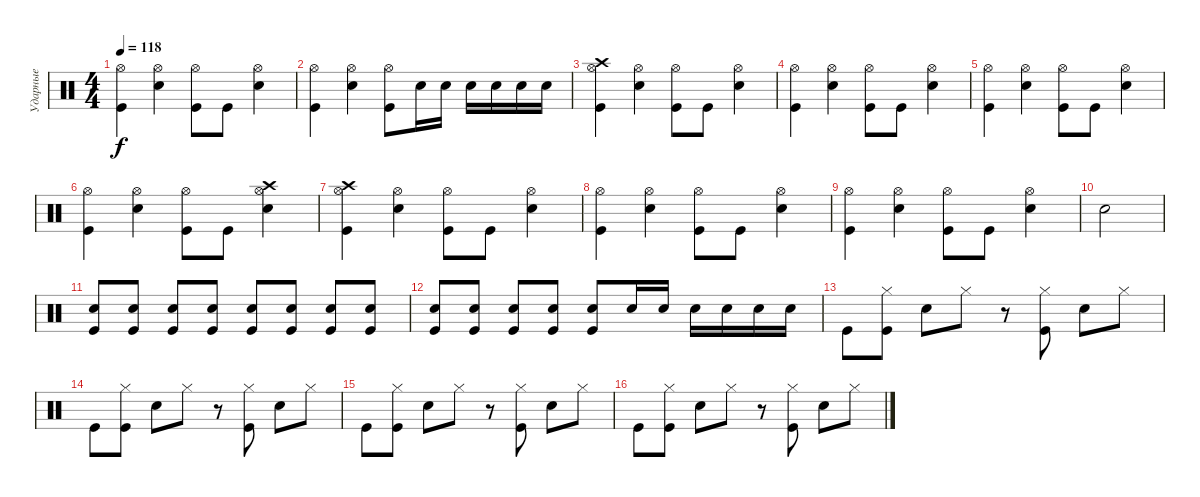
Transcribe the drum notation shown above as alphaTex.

\track ("Ударные" "Ударные") {instrument percussion}
\staff {score}
\articulation defaults
\ts (4 4)
\tempo 118
\clef neutral
\ks c
("Hi-Hat (open)" "Kick (hit)").4{dy f} ("Hi-Hat (open)" "Snare (hit) 2").4 ("Hi-Hat (open)" "Kick (hit)").8 "Kick (hit)".8 ("Hi-Hat (open)" "Snare (hit) 2").4 |
("Hi-Hat (open)" "Kick (hit)").4 ("Hi-Hat (open)" "Snare (hit) 2").4 ("Hi-Hat (open)" "Kick (hit)").8 "Snare (hit) 2".16 "Snare (hit) 2".16 "Snare (hit) 2".16 "Snare (hit) 2".16 "Snare (hit) 2".16 "Snare (hit) 2".16 |
("Hi-Hat (open)" "Crash high (hit)" "Kick (hit)").4 ("Hi-Hat (open)" "Snare (hit) 2").4 ("Hi-Hat (open)" "Kick (hit)").8 "Kick (hit)".8 ("Hi-Hat (open)" "Snare (hit) 2").4 |
("Hi-Hat (open)" "Kick (hit)").4 ("Hi-Hat (open)" "Snare (hit) 2").4 ("Hi-Hat (open)" "Kick (hit)").8 "Kick (hit)".8 ("Hi-Hat (open)" "Snare (hit) 2").4 |
("Hi-Hat (open)" "Kick (hit)").4 ("Hi-Hat (open)" "Snare (hit) 2").4 ("Hi-Hat (open)" "Kick (hit)").8 "Kick (hit)".8 ("Hi-Hat (open)" "Snare (hit) 2").4 |
("Hi-Hat (open)" "Kick (hit)").4 ("Hi-Hat (open)" "Snare (hit) 2").4 ("Hi-Hat (open)" "Kick (hit)").8 "Kick (hit)".8 ("Hi-Hat (open)" "Crash high (hit)" "Snare (hit) 2").4 |
("Hi-Hat (open)" "Crash high (hit)" "Kick (hit)").4 ("Hi-Hat (open)" "Snare (hit) 2").4 ("Hi-Hat (open)" "Kick (hit)").8 "Kick (hit)".8 ("Hi-Hat (open)" "Snare (hit) 2").4 |
("Hi-Hat (open)" "Kick (hit)").4 ("Hi-Hat (open)" "Snare (hit) 2").4 ("Hi-Hat (open)" "Kick (hit)").8 "Kick (hit)".8 ("Hi-Hat (open)" "Snare (hit) 2").4 |
("Hi-Hat (open)" "Kick (hit)").4 ("Hi-Hat (open)" "Snare (hit) 2").4 ("Hi-Hat (open)" "Kick (hit)").8 "Kick (hit)".8 ("Hi-Hat (open)" "Snare (hit) 2").4 |
"Snare (hit) 2".2 |
("Snare (hit) 2" "Kick (hit)").8 ("Snare (hit) 2" "Kick (hit)").8 ("Snare (hit) 2" "Kick (hit)").8 ("Snare (hit) 2" "Kick (hit)").8 ("Snare (hit) 2" "Kick (hit)").8 ("Snare (hit) 2" "Kick (hit)").8 ("Snare (hit) 2" "Kick (hit)").8 ("Snare (hit) 2" "Kick (hit)").8 |
("Snare (hit) 2" "Kick (hit)").8 ("Snare (hit) 2" "Kick (hit)").8 ("Snare (hit) 2" "Kick (hit)").8 ("Snare (hit) 2" "Kick (hit)").8 ("Snare (hit) 2" "Kick (hit)").8 "Snare (hit) 2".16 "Snare (hit) 2".16 "Snare (hit) 2".16 "Snare (hit) 2".16 "Snare (hit) 2".16 "Snare (hit) 2".16 |
"Kick (hit)".8 ("Hi-Hat (closed)" "Kick (hit)").8 "Snare (hit) 2".8 "Hi-Hat (closed)".8 r.8 ("Hi-Hat (closed)" "Kick (hit)").8 "Snare (hit) 2".8 "Hi-Hat (closed)".8 |
"Kick (hit)".8 ("Hi-Hat (closed)" "Kick (hit)").8 "Snare (hit) 2".8 "Hi-Hat (closed)".8 r.8 ("Hi-Hat (closed)" "Kick (hit)").8 "Snare (hit) 2".8 "Hi-Hat (closed)".8 |
"Kick (hit)".8 ("Hi-Hat (closed)" "Kick (hit)").8 "Snare (hit) 2".8 "Hi-Hat (closed)".8 r.8 ("Hi-Hat (closed)" "Kick (hit)").8 "Snare (hit) 2".8 "Hi-Hat (closed)".8 |
"Kick (hit)".8 ("Hi-Hat (closed)" "Kick (hit)").8 "Snare (hit) 2".8 "Hi-Hat (closed)".8 r.8 ("Hi-Hat (closed)" "Kick (hit)").8 "Snare (hit) 2".8 "Hi-Hat (closed)".8
